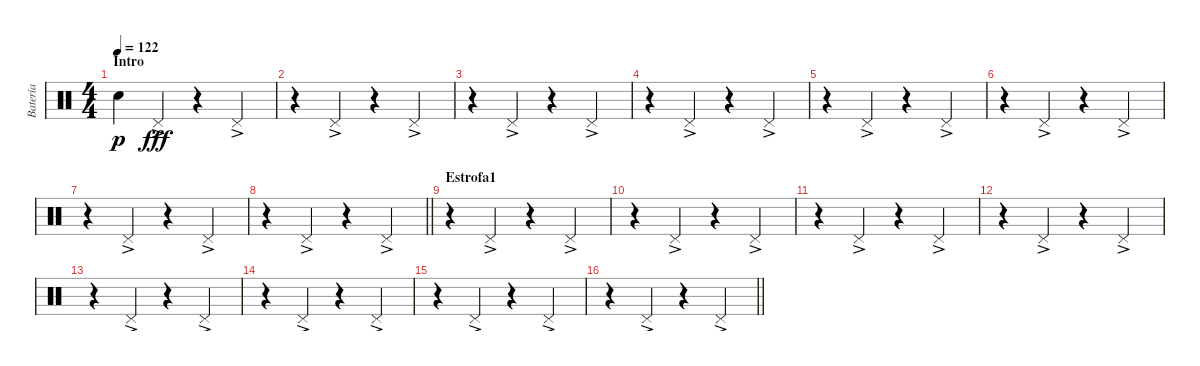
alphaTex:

\track ("Batería" "Batería") {instrument percussion}
\staff {score}
\articulation defaults
\ts (4 4)
\section ("" "Intro")
\tempo 122
\clef neutral
\ks c "Electric Snare (hit)".4{dy p} "Pedal Hi-Hat (hit)"{ac}.4{dy fff}
r.4 "Pedal Hi-Hat (hit)"{ac}.4 |
r.4 "Pedal Hi-Hat (hit)"{ac}.4 r.4 "Pedal Hi-Hat (hit)"{ac}.4 |
r.4 "Pedal Hi-Hat (hit)"{ac}.4 r.4 "Pedal Hi-Hat (hit)"{ac}.4 |
r.4 "Pedal Hi-Hat (hit)"{ac}.4 r.4 "Pedal Hi-Hat (hit)"{ac}.4 |
r.4 "Pedal Hi-Hat (hit)"{ac}.4 r.4 "Pedal Hi-Hat (hit)"{ac}.4 |
r.4 "Pedal Hi-Hat (hit)"{ac}.4 r.4 "Pedal Hi-Hat (hit)"{ac}.4 |
r.4 "Pedal Hi-Hat (hit)"{ac}.4 r.4 "Pedal Hi-Hat (hit)"{ac}.4 |
\barLineRight lightlight
r.4 "Pedal Hi-Hat (hit)"{ac}.4 r.4 "Pedal Hi-Hat (hit)"{ac}.4 |
\section ("" "Estrofa1")
r.4 "Pedal Hi-Hat (hit)"{ac}.4 r.4 "Pedal Hi-Hat (hit)"{ac}.4 |
r.4 "Pedal Hi-Hat (hit)"{ac}.4 r.4 "Pedal Hi-Hat (hit)"{ac}.4 |
r.4 "Pedal Hi-Hat (hit)"{ac}.4 r.4 "Pedal Hi-Hat (hit)"{ac}.4 |
r.4 "Pedal Hi-Hat (hit)"{ac}.4 r.4 "Pedal Hi-Hat (hit)"{ac}.4 |
r.4 "Pedal Hi-Hat (hit)"{ac}.4 r.4 "Pedal Hi-Hat (hit)"{ac}.4 |
r.4 "Pedal Hi-Hat (hit)"{ac}.4 r.4 "Pedal Hi-Hat (hit)"{ac}.4 |
r.4 "Pedal Hi-Hat (hit)"{ac}.4 r.4 "Pedal Hi-Hat (hit)"{ac}.4 |
\barLineRight lightlight
r.4 "Pedal Hi-Hat (hit)"{ac}.4 r.4 "Pedal Hi-Hat (hit)"{ac}.4
